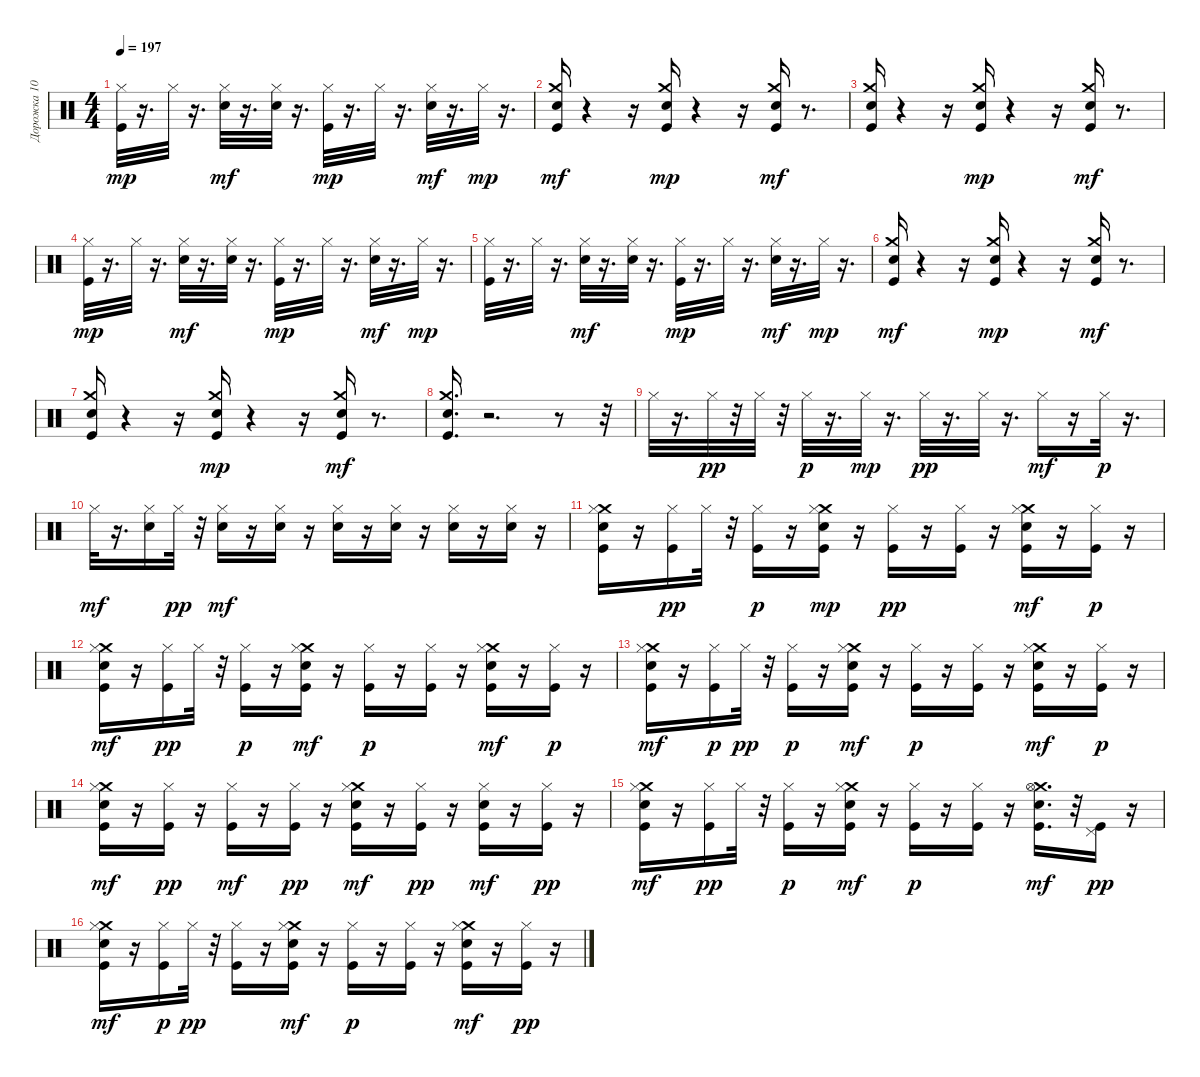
\track ("Дорожка 10" "Дорожка 10") {instrument percussion}
\staff {score}
\articulation defaults
\ts (4 4)
\tempo 197
\clef neutral
\ks c
("Hi-Hat (closed)" "Kick (hit)").32{dy mp} r.16{d} "Hi-Hat (closed)".32 r.16{d} ("Hi-Hat (closed)" "Electric Snare (hit)").32{dy mf} r.16{d} ("Hi-Hat (closed)" "Electric Snare (hit)").32 r.16{d} ("Hi-Hat (closed)" "Kick (hit)").32{dy mp} r.16{d} "Hi-Hat (closed)".32 r.16{d} ("Hi-Hat (closed)" "Electric Snare (hit)").32{dy mf} r.16{d} "Hi-Hat (closed)".32{dy mp} r.16{d} |
("Kick (hit)" "Crash medium (hit)" "Snare (hit) 2").16{dy mf} r.4 r.16 ("Crash medium (hit)" "Kick (hit)" "Snare (hit) 2").16{dy mp} r.4 r.16 ("Crash medium (hit)" "Snare (hit) 2" "Kick (hit)").16{dy mf} r.8{d} |
("Crash medium (hit)" "Snare (hit) 2" "Kick (hit)").16 r.4 r.16 ("Crash medium (hit)" "Kick (hit)" "Snare (hit) 2").16{dy mp} r.4 r.16 ("Crash medium (hit)" "Kick (hit)" "Snare (hit) 2").16{dy mf} r.8{d} |
("Hi-Hat (closed)" "Kick (hit)").32{dy mp} r.16{d} "Hi-Hat (closed)".32 r.16{d} ("Hi-Hat (closed)" "Electric Snare (hit)").32{dy mf} r.16{d} ("Hi-Hat (closed)" "Electric Snare (hit)").32 r.16{d} ("Hi-Hat (closed)" "Kick (hit)").32{dy mp} r.16{d} "Hi-Hat (closed)".32 r.16{d} ("Hi-Hat (closed)" "Electric Snare (hit)").32{dy mf} r.16{d} "Hi-Hat (closed)".32{dy mp} r.16{d} |
("Hi-Hat (closed)" "Kick (hit)").32 r.16{d} "Hi-Hat (closed)".32 r.16{d} ("Hi-Hat (closed)" "Electric Snare (hit)").32{dy mf} r.16{d} ("Hi-Hat (closed)" "Electric Snare (hit)").32 r.16{d} ("Hi-Hat (closed)" "Kick (hit)").32{dy mp} r.16{d} "Hi-Hat (closed)".32 r.16{d} ("Hi-Hat (closed)" "Electric Snare (hit)").32{dy mf} r.16{d} "Hi-Hat (closed)".32{dy mp} r.16{d} |
("Kick (hit)" "Crash medium (hit)" "Snare (hit) 2").16{dy mf} r.4 r.16 ("Crash medium (hit)" "Kick (hit)" "Snare (hit) 2").16{dy mp} r.4 r.16 ("Crash medium (hit)" "Snare (hit) 2" "Kick (hit)").16{dy mf} r.8{d} |
("Crash medium (hit)" "Snare (hit) 2" "Kick (hit)").16 r.4 r.16 ("Crash medium (hit)" "Kick (hit)" "Snare (hit) 2").16{dy mp} r.4 r.16 ("Crash medium (hit)" "Kick (hit)" "Snare (hit) 2").16{dy mf} r.8{d} |
("Crash medium (hit)" "Snare (hit) 2" "Kick (hit)").16{d} r.2{d} r.8 r.32 |
"Hi-Hat (closed)".32 r.16{d} "Hi-Hat (closed)".32{dy pp} r.32 "Hi-Hat (closed)".32 r.32 "Hi-Hat (closed)".32{dy p} r.16{d} "Hi-Hat (closed)".32{dy mp} r.16{d} "Hi-Hat (closed)".32{dy pp} r.16{d} "Hi-Hat (closed)".32 r.16{d} "Hi-Hat (closed)".16{dy mf} r.16 "Hi-Hat (closed)".32{dy p} r.16{d} |
"Hi-Hat (closed)".32{dy mf} r.16{d} ("Hi-Hat (closed)" "Electric Snare (hit)").16 "Hi-Hat (closed)".32{dy pp} r.32 ("Hi-Hat (closed)" "Electric Snare (hit)").16{dy mf} r.16 ("Hi-Hat (closed)" "Electric Snare (hit)").16 r.16 ("Hi-Hat (closed)" "Electric Snare (hit)").16 r.16 ("Hi-Hat (closed)" "Electric Snare (hit)").16 r.16 ("Hi-Hat (closed)" "Electric Snare (hit)").16 r.16 ("Hi-Hat (closed)" "Electric Snare (hit)").16 r.16 |
("Snare (hit) 2" "Crash medium (hit)" "Kick (hit)" "Hi-Hat (closed)").16 r.16 ("Kick (hit)" "Hi-Hat (closed)").16{dy pp} "Hi-Hat (closed)".32 r.32 ("Kick (hit)" "Hi-Hat (closed)").16{dy p} r.16 ("Crash medium (hit)" "Snare (hit) 2" "Kick (hit)" "Hi-Hat (closed)").16{dy mp} r.16 ("Kick (hit)" "Hi-Hat (closed)").16{dy pp} r.16 ("Kick (hit)" "Hi-Hat (closed)").16 r.16 ("Crash medium (hit)" "Snare (hit) 2" "Kick (hit)" "Hi-Hat (closed)").16{dy mf} r.16 ("Kick (hit)" "Hi-Hat (closed)").16{dy p} r.16 |
("Crash medium (hit)" "Snare (hit) 2" "Kick (hit)" "Hi-Hat (closed)").16{dy mf} r.16 ("Kick (hit)" "Hi-Hat (closed)").16{dy pp} "Hi-Hat (closed)".32 r.32 ("Kick (hit)" "Hi-Hat (closed)").16{dy p} r.16 ("Crash medium (hit)" "Snare (hit) 2" "Kick (hit)" "Hi-Hat (closed)").16{dy mf} r.16 ("Kick (hit)" "Hi-Hat (closed)").16{dy p} r.16 ("Kick (hit)" "Hi-Hat (closed)").16 r.16 ("Crash medium (hit)" "Snare (hit) 2" "Kick (hit)" "Hi-Hat (closed)").16{dy mf} r.16 ("Kick (hit)" "Hi-Hat (closed)").16{dy p} r.16 |
("Crash medium (hit)" "Snare (hit) 2" "Kick (hit)" "Hi-Hat (closed)").16{dy mf} r.16 ("Kick (hit)" "Hi-Hat (closed)").16{dy p} "Hi-Hat (closed)".32{dy pp} r.32 ("Kick (hit)" "Hi-Hat (closed)").16{dy p} r.16 ("Crash medium (hit)" "Snare (hit) 2" "Kick (hit)" "Hi-Hat (closed)").16{dy mf} r.16 ("Kick (hit)" "Hi-Hat (closed)").16{dy p} r.16 ("Kick (hit)" "Hi-Hat (closed)").16 r.16 ("Crash medium (hit)" "Snare (hit) 2" "Kick (hit)" "Hi-Hat (closed)").16{dy mf} r.16 ("Kick (hit)" "Hi-Hat (closed)").16{dy p} r.16 |
("Crash medium (hit)" "Snare (hit) 2" "Kick (hit)" "Hi-Hat (closed)").16{dy mf} r.16 ("Kick (hit)" "Hi-Hat (closed)").16{dy pp} r.16 ("Kick (hit)" "Hi-Hat (closed)").16{dy mf} r.16 ("Kick (hit)" "Hi-Hat (closed)").16{dy pp} r.16 ("Snare (hit) 2" "Crash medium (hit)" "Kick (hit)" "Hi-Hat (closed)").16{dy mf} r.16 ("Kick (hit)" "Hi-Hat (closed)").16{dy pp} r.16 ("Snare (hit) 2" "Kick (hit)" "Hi-Hat (closed)").16{dy mf} r.16 ("Kick (hit)" "Hi-Hat (closed)").16{dy pp} r.16 |
("Crash medium (hit)" "Snare (hit) 2" "Kick (hit)" "Hi-Hat (closed)").16{dy mf} r.16 ("Kick (hit)" "Hi-Hat (closed)").16{dy pp} "Hi-Hat (closed)".32 r.32 ("Kick (hit)" "Hi-Hat (closed)").16{dy p} r.16 ("Snare (hit) 2" "Crash medium (hit)" "Kick (hit)" "Hi-Hat (closed)").16{dy mf} r.16 ("Kick (hit)" "Hi-Hat (closed)").16{dy p} r.16 ("Kick (hit)" "Hi-Hat (closed)").16 r.16 ("Crash medium (hit)" "Snare (hit) 2" "Kick (hit)" "Hi-Hat (open)").16{d dy mf} r.32 ("Kick (hit)" "Pedal Hi-Hat (hit)").16{dy pp} r.16 |
("Crash medium (hit)" "Snare (hit) 2" "Kick (hit)" "Hi-Hat (closed)").16{dy mf} r.16 ("Kick (hit)" "Hi-Hat (closed)").16{dy p} "Hi-Hat (closed)".32{dy pp} r.32 ("Kick (hit)" "Hi-Hat (closed)").16 r.16 ("Snare (hit) 2" "Crash medium (hit)" "Kick (hit)" "Hi-Hat (closed)").16{dy mf} r.16 ("Kick (hit)" "Hi-Hat (closed)").16{dy p} r.16 ("Kick (hit)" "Hi-Hat (closed)").16 r.16 ("Crash medium (hit)" "Snare (hit) 2" "Kick (hit)" "Hi-Hat (closed)").16{dy mf} r.16 ("Kick (hit)" "Hi-Hat (closed)").16{dy pp} r.16
